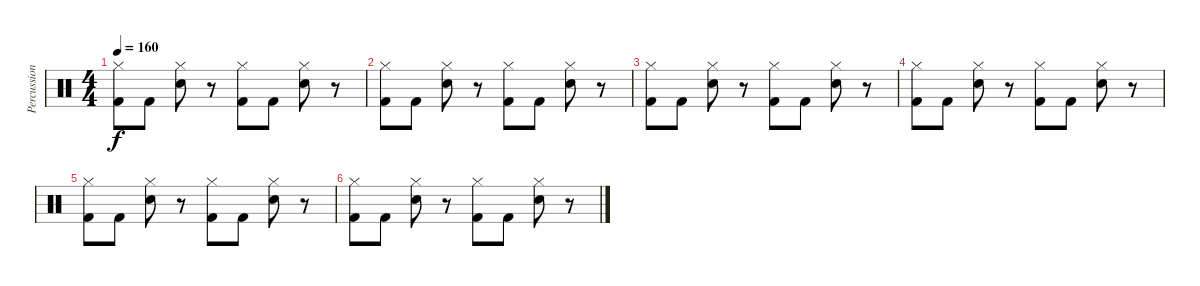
\track ("Percussion" "Percussion") {instrument percussion}
\staff {score}
\articulation defaults
\ts (4 4)
\tempo 160
\clef neutral
\ks c
("Kick (hit) 2" "Hi-Hat (closed)").8{dy f} "Kick (hit) 2".8 ("Snare (hit) 2" "Hi-Hat (closed)").8 r.8 ("Kick (hit) 2" "Hi-Hat (closed)").8 "Kick (hit) 2".8 ("Snare (hit) 2" "Hi-Hat (closed)").8 r.8 |
("Kick (hit) 2" "Hi-Hat (closed)").8 "Kick (hit) 2".8 ("Snare (hit) 2" "Hi-Hat (closed)").8 r.8 ("Kick (hit) 2" "Hi-Hat (closed)").8 "Kick (hit) 2".8 ("Snare (hit) 2" "Hi-Hat (closed)").8 r.8 |
("Kick (hit) 2" "Hi-Hat (closed)").8 "Kick (hit) 2".8 ("Snare (hit) 2" "Hi-Hat (closed)").8 r.8 ("Kick (hit) 2" "Hi-Hat (closed)").8 "Kick (hit) 2".8 ("Snare (hit) 2" "Hi-Hat (closed)").8 r.8 |
("Kick (hit) 2" "Hi-Hat (closed)").8 "Kick (hit) 2".8 ("Snare (hit) 2" "Hi-Hat (closed)").8 r.8 ("Kick (hit) 2" "Hi-Hat (closed)").8 "Kick (hit) 2".8 ("Snare (hit) 2" "Hi-Hat (closed)").8 r.8 |
("Kick (hit) 2" "Hi-Hat (closed)").8 "Kick (hit) 2".8 ("Snare (hit) 2" "Hi-Hat (closed)").8 r.8 ("Kick (hit) 2" "Hi-Hat (closed)").8 "Kick (hit) 2".8 ("Snare (hit) 2" "Hi-Hat (closed)").8 r.8 |
("Kick (hit) 2" "Hi-Hat (closed)").8 "Kick (hit) 2".8 ("Snare (hit) 2" "Hi-Hat (closed)").8 r.8 ("Kick (hit) 2" "Hi-Hat (closed)").8 "Kick (hit) 2".8 ("Snare (hit) 2" "Hi-Hat (closed)").8 r.8
